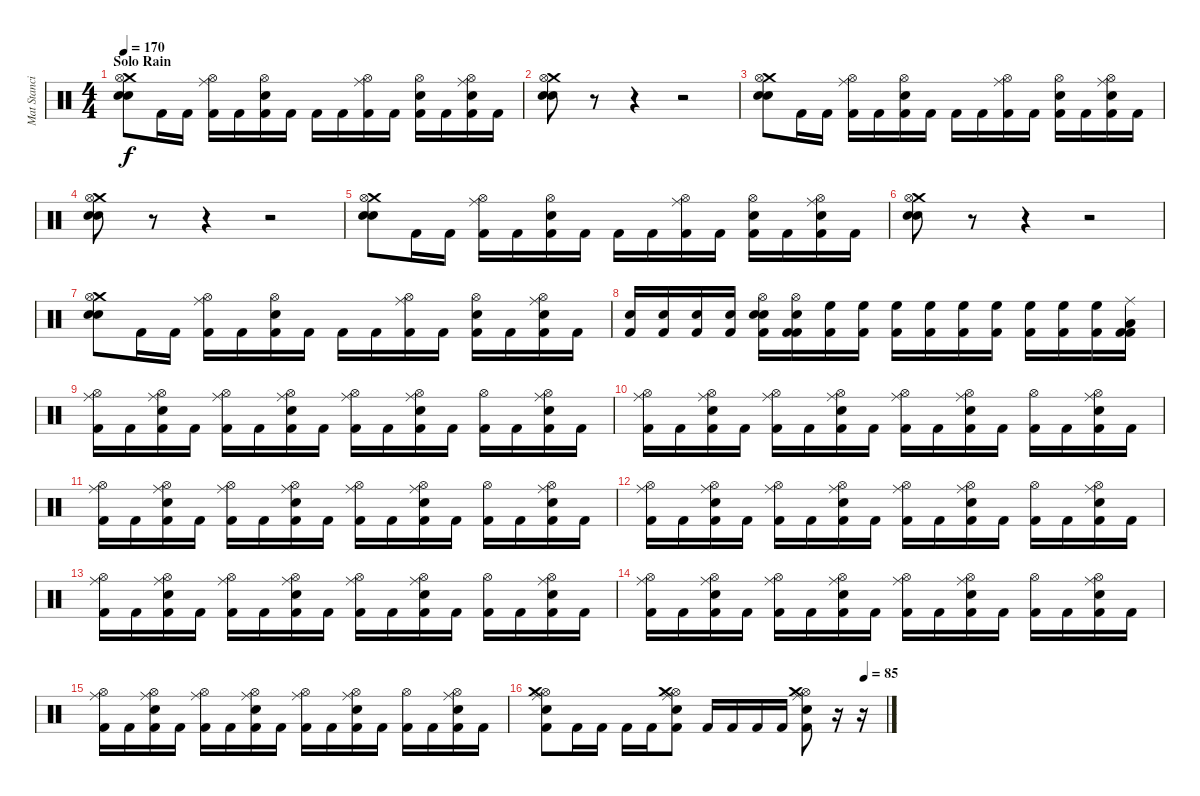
\track ("Mat Stancioiu" "Mat Stanci") {instrument percussion}
\staff {score}
\articulation defaults
\ts (4 4)
\section ("" "Solo Rain")
\tempo 170
\clef neutral
\ks c
("Crash medium (hit)" "Hi-Hat (open)" "Snare (hit)" "Electric Snare (hit)").8{dy f} "Kick (hit) 2".16 "Kick (hit) 2".16 ("Kick (hit) 2" "Hi-Hat (open)" "Ride (middle)").16 "Kick (hit) 2".16 ("Electric Snare (hit)" "Hi-Hat (open)" "Kick (hit) 2").16 "Kick (hit) 2".16 "Kick (hit) 2".16 "Kick (hit) 2".16 ("Kick (hit) 2" "Hi-Hat (open)" "Ride (middle)").16 "Kick (hit) 2".16 ("Electric Snare (hit)" "Hi-Hat (open)" "Kick (hit) 2").16 "Kick (hit) 2".16 ("Electric Snare (hit)" "Hi-Hat (open)" "Kick (hit) 2" "Ride (middle)").16 "Kick (hit) 2".16 |
("Crash medium (hit)" "Hi-Hat (open)" "Snare (hit)" "Electric Snare (hit)").8 r.8 r.4 r.2 |
("Crash medium (hit)" "Hi-Hat (open)" "Snare (hit)" "Electric Snare (hit)").8 "Kick (hit) 2".16 "Kick (hit) 2".16 ("Kick (hit) 2" "Hi-Hat (open)" "Ride (middle)").16 "Kick (hit) 2".16 ("Electric Snare (hit)" "Hi-Hat (open)" "Kick (hit) 2").16 "Kick (hit) 2".16 "Kick (hit) 2".16 "Kick (hit) 2".16 ("Kick (hit) 2" "Hi-Hat (open)" "Ride (middle)").16 "Kick (hit) 2".16 ("Electric Snare (hit)" "Hi-Hat (open)" "Kick (hit) 2").16 "Kick (hit) 2".16 ("Electric Snare (hit)" "Hi-Hat (open)" "Kick (hit) 2" "Ride (middle)").16 "Kick (hit) 2".16 |
("Crash medium (hit)" "Hi-Hat (open)" "Snare (hit)" "Electric Snare (hit)").8 r.8 r.4 r.2 |
("Crash medium (hit)" "Hi-Hat (open)" "Snare (hit)" "Electric Snare (hit)").8 "Kick (hit) 2".16 "Kick (hit) 2".16 ("Kick (hit) 2" "Hi-Hat (open)" "Ride (middle)").16 "Kick (hit) 2".16 ("Electric Snare (hit)" "Hi-Hat (open)" "Kick (hit) 2").16 "Kick (hit) 2".16 "Kick (hit) 2".16 "Kick (hit) 2".16 ("Kick (hit) 2" "Hi-Hat (open)" "Ride (middle)").16 "Kick (hit) 2".16 ("Electric Snare (hit)" "Hi-Hat (open)" "Kick (hit) 2").16 "Kick (hit) 2".16 ("Electric Snare (hit)" "Hi-Hat (open)" "Kick (hit) 2" "Ride (middle)").16 "Kick (hit) 2".16 |
("Crash medium (hit)" "Hi-Hat (open)" "Snare (hit)" "Electric Snare (hit)").8 r.8 r.4 r.2 |
("Crash medium (hit)" "Hi-Hat (open)" "Snare (hit)" "Electric Snare (hit)").8 "Kick (hit) 2".16 "Kick (hit) 2".16 ("Kick (hit) 2" "Hi-Hat (open)" "Ride (middle)").16 "Kick (hit) 2".16 ("Electric Snare (hit)" "Hi-Hat (open)" "Kick (hit) 2").16 "Kick (hit) 2".16 "Kick (hit) 2".16 "Kick (hit) 2".16 ("Kick (hit) 2" "Hi-Hat (open)" "Ride (middle)").16 "Kick (hit) 2".16 ("Electric Snare (hit)" "Hi-Hat (open)" "Kick (hit) 2").16 "Kick (hit) 2".16 ("Electric Snare (hit)" "Hi-Hat (open)" "Kick (hit) 2" "Ride (middle)").16 "Kick (hit) 2".16 |
("Electric Snare (hit)" "Kick (hit) 2").16 ("Electric Snare (hit)" "Kick (hit) 2").16 ("Electric Snare (hit)" "Kick (hit) 2").16 ("Electric Snare (hit)" "Kick (hit) 2").16 ("Electric Snare (hit)" "Kick (hit) 2" "Hi-Hat (open)" "Snare (hit)").16 ("Kick (hit) 2" "Kick (hit) 2" "Hi-Hat (open)" "Snare (hit)").16 ("Kick (hit) 2" "High Floor Tom (hit)").16 ("Kick (hit) 2" "High Floor Tom (hit)").16 ("Kick (hit) 2" "High Floor Tom (hit)").16 ("Kick (hit) 2" "High Floor Tom (hit)").16 ("Kick (hit) 2" "High Floor Tom (hit)").16 ("Kick (hit) 2" "High Floor Tom (hit)").16 ("Kick (hit) 2" "High Floor Tom (hit)").16 ("Kick (hit) 2" "High Floor Tom (hit)").16 ("Kick (hit) 2" "High Floor Tom (hit)").16 ("Kick (hit) 2" "Kick (hit) 2" "Low Tom (hit)" "Ride (middle)").16 |
("Hi-Hat (open)" "Kick (hit) 2" "Ride (middle)").16 "Kick (hit) 2".16 ("Electric Snare (hit)" "Hi-Hat (open)" "Kick (hit) 2" "Ride (middle)").16 "Kick (hit) 2".16 ("Hi-Hat (open)" "Kick (hit) 2" "Ride (middle)").16 "Kick (hit) 2".16 ("Electric Snare (hit)" "Hi-Hat (open)" "Kick (hit) 2" "Ride (middle)").16 "Kick (hit) 2".16 ("Hi-Hat (open)" "Kick (hit) 2" "Ride (middle)").16 "Kick (hit) 2".16 ("Electric Snare (hit)" "Hi-Hat (open)" "Kick (hit) 2" "Ride (middle)").16 "Kick (hit) 2".16 ("Hi-Hat (open)" "Kick (hit) 2").16 "Kick (hit) 2".16 ("Electric Snare (hit)" "Hi-Hat (open)" "Kick (hit) 2" "Ride (middle)").16 "Kick (hit) 2".16 |
("Hi-Hat (open)" "Kick (hit) 2" "Ride (middle)").16 "Kick (hit) 2".16 ("Electric Snare (hit)" "Hi-Hat (open)" "Kick (hit) 2" "Ride (middle)").16 "Kick (hit) 2".16 ("Hi-Hat (open)" "Kick (hit) 2" "Ride (middle)").16 "Kick (hit) 2".16 ("Electric Snare (hit)" "Hi-Hat (open)" "Kick (hit) 2" "Ride (middle)").16 "Kick (hit) 2".16 ("Hi-Hat (open)" "Kick (hit) 2" "Ride (middle)").16 "Kick (hit) 2".16 ("Electric Snare (hit)" "Hi-Hat (open)" "Kick (hit) 2" "Ride (middle)").16 "Kick (hit) 2".16 ("Hi-Hat (open)" "Kick (hit) 2").16 "Kick (hit) 2".16 ("Electric Snare (hit)" "Hi-Hat (open)" "Kick (hit) 2" "Ride (middle)").16 "Kick (hit) 2".16 |
("Hi-Hat (open)" "Kick (hit) 2" "Ride (middle)").16 "Kick (hit) 2".16 ("Electric Snare (hit)" "Hi-Hat (open)" "Kick (hit) 2" "Ride (middle)").16 "Kick (hit) 2".16 ("Hi-Hat (open)" "Kick (hit) 2" "Ride (middle)").16 "Kick (hit) 2".16 ("Electric Snare (hit)" "Hi-Hat (open)" "Kick (hit) 2" "Ride (middle)").16 "Kick (hit) 2".16 ("Hi-Hat (open)" "Kick (hit) 2" "Ride (middle)").16 "Kick (hit) 2".16 ("Electric Snare (hit)" "Hi-Hat (open)" "Kick (hit) 2" "Ride (middle)").16 "Kick (hit) 2".16 ("Hi-Hat (open)" "Kick (hit) 2").16 "Kick (hit) 2".16 ("Electric Snare (hit)" "Hi-Hat (open)" "Kick (hit) 2" "Ride (middle)").16 "Kick (hit) 2".16 |
("Hi-Hat (open)" "Kick (hit) 2" "Ride (middle)").16 "Kick (hit) 2".16 ("Electric Snare (hit)" "Hi-Hat (open)" "Kick (hit) 2" "Ride (middle)").16 "Kick (hit) 2".16 ("Hi-Hat (open)" "Kick (hit) 2" "Ride (middle)").16 "Kick (hit) 2".16 ("Electric Snare (hit)" "Hi-Hat (open)" "Kick (hit) 2" "Ride (middle)").16 "Kick (hit) 2".16 ("Hi-Hat (open)" "Kick (hit) 2" "Ride (middle)").16 "Kick (hit) 2".16 ("Electric Snare (hit)" "Hi-Hat (open)" "Kick (hit) 2" "Ride (middle)").16 "Kick (hit) 2".16 ("Hi-Hat (open)" "Kick (hit) 2").16 "Kick (hit) 2".16 ("Electric Snare (hit)" "Hi-Hat (open)" "Kick (hit) 2" "Ride (middle)").16 "Kick (hit) 2".16 |
("Hi-Hat (open)" "Kick (hit) 2" "Ride (middle)").16 "Kick (hit) 2".16 ("Electric Snare (hit)" "Hi-Hat (open)" "Kick (hit) 2" "Ride (middle)").16 "Kick (hit) 2".16 ("Hi-Hat (open)" "Kick (hit) 2" "Ride (middle)").16 "Kick (hit) 2".16 ("Electric Snare (hit)" "Hi-Hat (open)" "Kick (hit) 2" "Ride (middle)").16 "Kick (hit) 2".16 ("Hi-Hat (open)" "Kick (hit) 2" "Ride (middle)").16 "Kick (hit) 2".16 ("Electric Snare (hit)" "Hi-Hat (open)" "Kick (hit) 2" "Ride (middle)").16 "Kick (hit) 2".16 ("Hi-Hat (open)" "Kick (hit) 2").16 "Kick (hit) 2".16 ("Electric Snare (hit)" "Hi-Hat (open)" "Kick (hit) 2" "Ride (middle)").16 "Kick (hit) 2".16 |
("Hi-Hat (open)" "Kick (hit) 2" "Ride (middle)").16 "Kick (hit) 2".16 ("Electric Snare (hit)" "Hi-Hat (open)" "Kick (hit) 2" "Ride (middle)").16 "Kick (hit) 2".16 ("Hi-Hat (open)" "Kick (hit) 2" "Ride (middle)").16 "Kick (hit) 2".16 ("Electric Snare (hit)" "Hi-Hat (open)" "Kick (hit) 2" "Ride (middle)").16 "Kick (hit) 2".16 ("Hi-Hat (open)" "Kick (hit) 2" "Ride (middle)").16 "Kick (hit) 2".16 ("Electric Snare (hit)" "Hi-Hat (open)" "Kick (hit) 2" "Ride (middle)").16 "Kick (hit) 2".16 ("Hi-Hat (open)" "Kick (hit) 2").16 "Kick (hit) 2".16 ("Electric Snare (hit)" "Hi-Hat (open)" "Kick (hit) 2" "Ride (middle)").16 "Kick (hit) 2".16 |
("Hi-Hat (open)" "Kick (hit) 2" "Ride (middle)").16 "Kick (hit) 2".16 ("Electric Snare (hit)" "Hi-Hat (open)" "Kick (hit) 2" "Ride (middle)").16 "Kick (hit) 2".16 ("Hi-Hat (open)" "Kick (hit) 2" "Ride (middle)").16 "Kick (hit) 2".16 ("Electric Snare (hit)" "Hi-Hat (open)" "Kick (hit) 2" "Ride (middle)").16 "Kick (hit) 2".16 ("Hi-Hat (open)" "Kick (hit) 2" "Ride (middle)").16 "Kick (hit) 2".16 ("Electric Snare (hit)" "Hi-Hat (open)" "Kick (hit) 2" "Ride (middle)").16 "Kick (hit) 2".16 ("Hi-Hat (open)" "Kick (hit) 2").16 "Kick (hit) 2".16 ("Electric Snare (hit)" "Hi-Hat (open)" "Kick (hit) 2" "Ride (middle)").16 "Kick (hit) 2".16 |
\tempo (85 0.9375)
("Electric Snare (hit)" "Hi-Hat (open)" "Kick (hit) 2" "Crash medium (hit)" "Ride (middle)").8 "Kick (hit) 2".16 "Kick (hit) 2".16 "Kick (hit) 2".16 "Kick (hit) 2".16 ("Electric Snare (hit)" "Hi-Hat (open)" "Kick (hit) 2" "Crash medium (hit)" "Ride (middle)").8 "Kick (hit) 2".16 "Kick (hit) 2".16 "Kick (hit) 2".16 "Kick (hit) 2".16 ("Electric Snare (hit)" "Hi-Hat (open)" "Kick (hit) 2" "Crash medium (hit)" "Ride (middle)").8 r.16 r.16{volume 10}
